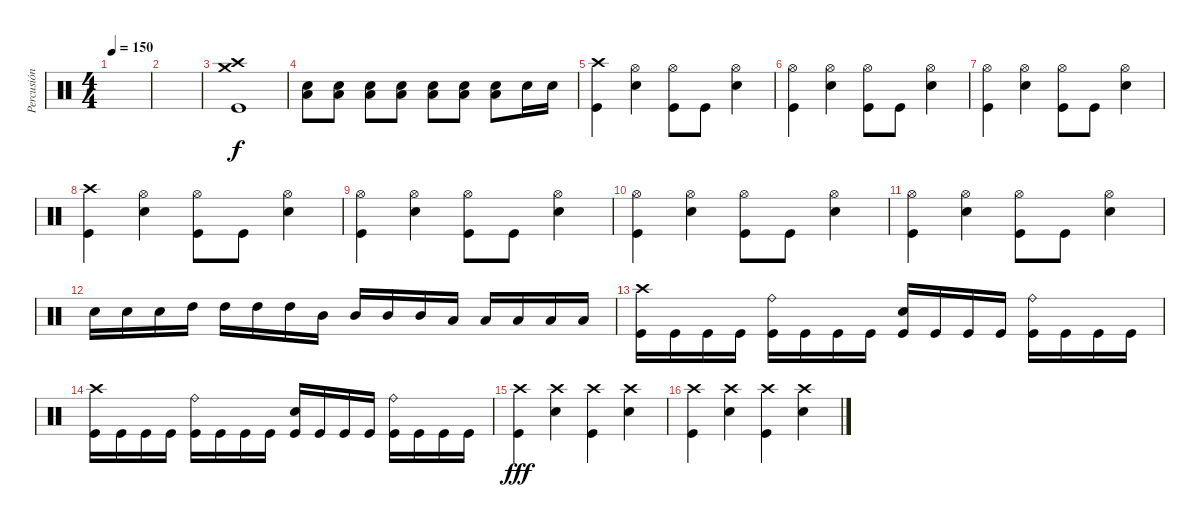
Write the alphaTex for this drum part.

\track ("Percusión" "Percusión") {instrument percussion bank 106}
\staff {score}
\articulation defaults
\ts (4 4)
\tempo 150
\clef neutral
\ks c
|
|
("Crash medium (hit)" "Crash high (hit)" "Kick (hit)").1 |
("Low Tom (hit)" "Electric Snare (hit)").8 ("Low Tom (hit)" "Electric Snare (hit)").8 ("Low Tom (hit)" "Electric Snare (hit)").8 ("Low Tom (hit)" "Electric Snare (hit)").8 ("Low Tom (hit)" "Electric Snare (hit)").8 ("Low Tom (hit)" "Electric Snare (hit)").8 ("Low Tom (hit)" "Electric Snare (hit)").8 "Electric Snare (hit)".16 "Electric Snare (hit)".16 |
("Crash high (hit)" "Kick (hit)").4 ("Hi-Hat (open)" "Electric Snare (hit)").4 ("Hi-Hat (open)" "Kick (hit)").8 "Kick (hit)".8 ("Hi-Hat (open)" "Electric Snare (hit)").4 |
("Hi-Hat (open)" "Kick (hit)").4 ("Hi-Hat (open)" "Electric Snare (hit)").4 ("Hi-Hat (open)" "Kick (hit)").8 "Kick (hit)".8 ("Hi-Hat (open)" "Electric Snare (hit)").4 |
("Hi-Hat (open)" "Kick (hit)").4 ("Hi-Hat (open)" "Electric Snare (hit)").4 ("Hi-Hat (open)" "Kick (hit)").8 "Kick (hit)".8 ("Hi-Hat (open)" "Electric Snare (hit)").4 |
("Crash high (hit)" "Kick (hit)").4 ("Hi-Hat (open)" "Electric Snare (hit)").4 ("Hi-Hat (open)" "Kick (hit)").8 "Kick (hit)".8 ("Hi-Hat (open)" "Electric Snare (hit)").4 |
("Hi-Hat (open)" "Kick (hit)").4 ("Hi-Hat (open)" "Electric Snare (hit)").4 ("Hi-Hat (open)" "Kick (hit)").8 "Kick (hit)".8 ("Hi-Hat (open)" "Electric Snare (hit)").4 |
("Hi-Hat (open)" "Kick (hit)").4 ("Hi-Hat (open)" "Electric Snare (hit)").4 ("Hi-Hat (open)" "Kick (hit)").8 "Kick (hit)".8 ("Hi-Hat (open)" "Electric Snare (hit)").4 |
("Hi-Hat (open)" "Kick (hit)").4 ("Hi-Hat (open)" "Electric Snare (hit)").4 ("Hi-Hat (open)" "Kick (hit)").8 "Kick (hit)".8 ("Hi-Hat (open)" "Electric Snare (hit)").4 |
"Electric Snare (hit)".16 "Electric Snare (hit)".16 "Electric Snare (hit)".16 "High Tom (hit)".16 "High Tom (hit)".16 "High Tom (hit)".16 "High Tom (hit)".16 "Mid Tom (hit)".16 "Mid Tom (hit)".16 "Mid Tom (hit)".16 "Mid Tom (hit)".16 "Low Tom (hit)".16 "Low Tom (hit)".16 "Low Tom (hit)".16 "Low Tom (hit)".16 "Low Tom (hit)".16 |
("Crash high (hit)" "Kick (hit)").16 "Kick (hit)".16 "Kick (hit)".16 "Kick (hit)".16 ("Ride (bell)" "Kick (hit)").16 "Kick (hit)".16 "Kick (hit)".16 "Kick (hit)".16 ("Electric Snare (hit)" "Kick (hit)").16 "Kick (hit)".16 "Kick (hit)".16 "Kick (hit)".16 ("Ride (bell)" "Kick (hit)").16 "Kick (hit)".16 "Kick (hit)".16 "Kick (hit)".16 |
("Crash high (hit)" "Kick (hit)").16 "Kick (hit)".16 "Kick (hit)".16 "Kick (hit)".16 ("Ride (bell)" "Kick (hit)").16 "Kick (hit)".16 "Kick (hit)".16 "Kick (hit)".16 ("Electric Snare (hit)" "Kick (hit)").16 "Kick (hit)".16 "Kick (hit)".16 "Kick (hit)".16 ("Ride (bell)" "Kick (hit)").16 "Kick (hit)".16 "Kick (hit)".16 "Kick (hit)".16 |
("Crash high (hit)" "Kick (hit)").4{dy fff} ("Crash high (hit)" "Electric Snare (hit)").4 ("Crash high (hit)" "Kick (hit)").4 ("Crash high (hit)" "Electric Snare (hit)").4 |
("Crash high (hit)" "Kick (hit)").4 ("Crash high (hit)" "Electric Snare (hit)").4 ("Crash high (hit)" "Kick (hit)").4 ("Crash high (hit)" "Electric Snare (hit)").4
